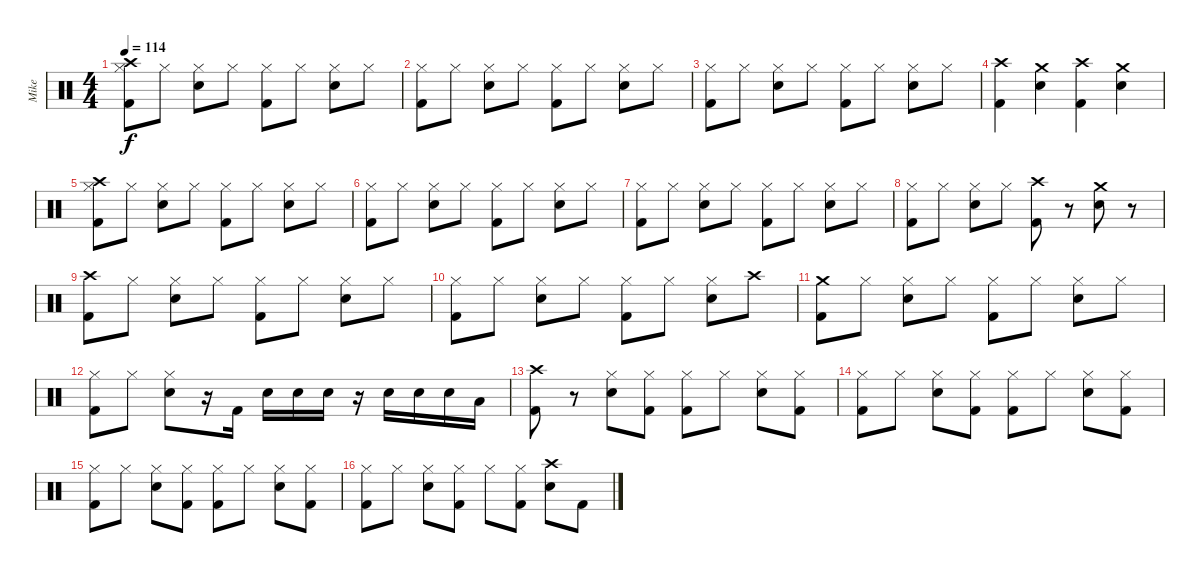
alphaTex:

\track ("Mike" "Mike") {instrument percussion}
\staff {score}
\articulation defaults
\ts (4 4)
\tempo 114
\clef neutral
\ks c
("Crash high (hit)" "Hi-Hat (closed)" "Kick (hit) 2").8{dy f} "Hi-Hat (closed)".8 ("Hi-Hat (closed)" "Electric Snare (hit)").8 "Hi-Hat (closed)".8 ("Hi-Hat (closed)" "Kick (hit) 2").8 "Hi-Hat (closed)".8 ("Hi-Hat (closed)" "Electric Snare (hit)").8 "Hi-Hat (closed)".8 |
("Hi-Hat (closed)" "Kick (hit) 2").8 "Hi-Hat (closed)".8 ("Hi-Hat (closed)" "Electric Snare (hit)").8 "Hi-Hat (closed)".8 ("Hi-Hat (closed)" "Kick (hit) 2").8 "Hi-Hat (closed)".8 ("Hi-Hat (closed)" "Electric Snare (hit)").8 "Hi-Hat (closed)".8 |
("Hi-Hat (closed)" "Kick (hit) 2").8 "Hi-Hat (closed)".8 ("Hi-Hat (closed)" "Electric Snare (hit)").8 "Hi-Hat (closed)".8 ("Hi-Hat (closed)" "Kick (hit) 2").8 "Hi-Hat (closed)".8 ("Hi-Hat (closed)" "Electric Snare (hit)").8 "Hi-Hat (closed)".8 |
("Crash high (hit)" "Kick (hit) 2").4 ("Crash medium (hit)" "Electric Snare (hit)").4 ("Crash high (hit)" "Kick (hit) 2").4 ("Crash medium (hit)" "Electric Snare (hit)").4 |
("Crash high (hit)" "Hi-Hat (closed)" "Kick (hit) 2").8 "Hi-Hat (closed)".8 ("Hi-Hat (closed)" "Electric Snare (hit)").8 "Hi-Hat (closed)".8 ("Hi-Hat (closed)" "Kick (hit) 2").8 "Hi-Hat (closed)".8 ("Hi-Hat (closed)" "Electric Snare (hit)").8 "Hi-Hat (closed)".8 |
("Hi-Hat (closed)" "Kick (hit) 2").8 "Hi-Hat (closed)".8 ("Hi-Hat (closed)" "Electric Snare (hit)").8 "Hi-Hat (closed)".8 ("Hi-Hat (closed)" "Kick (hit) 2").8 "Hi-Hat (closed)".8 ("Hi-Hat (closed)" "Electric Snare (hit)").8 "Hi-Hat (closed)".8 |
("Hi-Hat (closed)" "Kick (hit) 2").8 "Hi-Hat (closed)".8 ("Hi-Hat (closed)" "Electric Snare (hit)").8 "Hi-Hat (closed)".8 ("Hi-Hat (closed)" "Kick (hit) 2").8 "Hi-Hat (closed)".8 ("Hi-Hat (closed)" "Electric Snare (hit)").8 "Hi-Hat (closed)".8 |
("Hi-Hat (closed)" "Kick (hit) 2").8 "Hi-Hat (closed)".8 ("Hi-Hat (closed)" "Electric Snare (hit)").8 "Hi-Hat (closed)".8 ("Crash high (hit)" "Kick (hit) 2").8 r.8 ("Crash medium (hit)" "Electric Snare (hit)").8 r.8 |
("Crash high (hit)" "Kick (hit) 2").8 "Hi-Hat (closed)".8 ("Hi-Hat (closed)" "Electric Snare (hit)").8 "Hi-Hat (closed)".8 ("Hi-Hat (closed)" "Kick (hit) 2").8 "Hi-Hat (closed)".8 ("Hi-Hat (closed)" "Electric Snare (hit)").8 "Hi-Hat (closed)".8 |
("Hi-Hat (closed)" "Kick (hit) 2").8 "Hi-Hat (closed)".8 ("Hi-Hat (closed)" "Electric Snare (hit)").8 "Hi-Hat (closed)".8 ("Hi-Hat (closed)" "Kick (hit) 2").8 "Hi-Hat (closed)".8 ("Hi-Hat (closed)" "Electric Snare (hit)").8 "Crash high (hit)".8 |
("Crash medium (hit)" "Kick (hit) 2").8 "Hi-Hat (closed)".8 ("Hi-Hat (closed)" "Electric Snare (hit)").8 "Hi-Hat (closed)".8 ("Hi-Hat (closed)" "Kick (hit) 2").8 "Hi-Hat (closed)".8 ("Hi-Hat (closed)" "Electric Snare (hit)").8 "Hi-Hat (closed)".8 |
("Hi-Hat (closed)" "Kick (hit) 2").8 "Hi-Hat (closed)".8 ("Hi-Hat (closed)" "Electric Snare (hit)").8 r.16 "Kick (hit) 2".16 "Electric Snare (hit)".16 "Electric Snare (hit)".16 "Electric Snare (hit)".16 r.16 "Electric Snare (hit)".16 "Electric Snare (hit)".16 "Electric Snare (hit)".16 "Low Tom (hit)".16 |
("Crash high (hit)" "Kick (hit) 2").8 r.8 ("Hi-Hat (closed)" "Electric Snare (hit)").8 ("Hi-Hat (closed)" "Kick (hit) 2").8 ("Hi-Hat (closed)" "Kick (hit) 2").8 "Hi-Hat (closed)".8 ("Hi-Hat (closed)" "Electric Snare (hit)").8 ("Hi-Hat (closed)" "Kick (hit) 2").8 |
("Hi-Hat (closed)" "Kick (hit) 2").8 "Hi-Hat (closed)".8 ("Hi-Hat (closed)" "Electric Snare (hit)").8 ("Hi-Hat (closed)" "Kick (hit) 2").8 ("Hi-Hat (closed)" "Kick (hit) 2").8 "Hi-Hat (closed)".8 ("Hi-Hat (closed)" "Electric Snare (hit)").8 ("Hi-Hat (closed)" "Kick (hit) 2").8 |
("Hi-Hat (closed)" "Kick (hit) 2").8 "Hi-Hat (closed)".8 ("Hi-Hat (closed)" "Electric Snare (hit)").8 ("Hi-Hat (closed)" "Kick (hit) 2").8 ("Hi-Hat (closed)" "Kick (hit) 2").8 "Hi-Hat (closed)".8 ("Hi-Hat (closed)" "Electric Snare (hit)").8 ("Hi-Hat (closed)" "Kick (hit) 2").8 |
("Hi-Hat (closed)" "Kick (hit) 2").8 "Hi-Hat (closed)".8 ("Hi-Hat (closed)" "Electric Snare (hit)").8 ("Hi-Hat (closed)" "Kick (hit) 2").8 "Hi-Hat (closed)".8 ("Hi-Hat (closed)" "Kick (hit) 2").8 ("Crash high (hit)" "Electric Snare (hit)").8 "Kick (hit) 2".8
